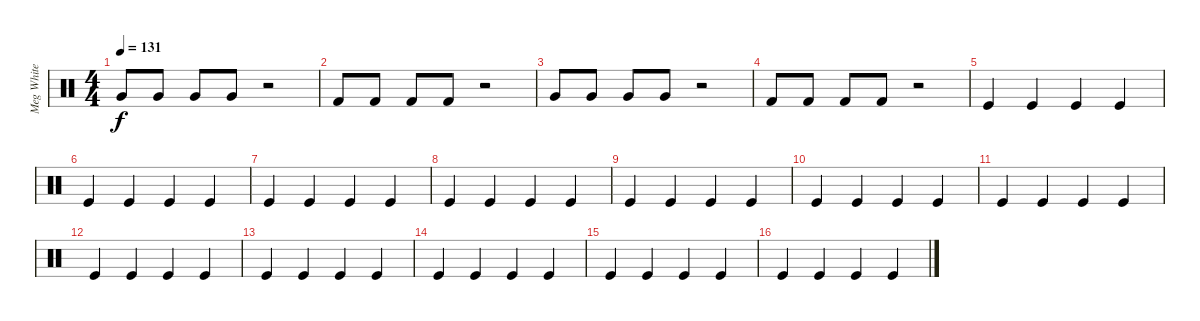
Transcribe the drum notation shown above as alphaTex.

\track ("Meg White" "Meg White") {instrument percussion}
\staff {score}
\articulation defaults
\ts (4 4)
\tempo 131
\clef neutral
\ks c "Very Low Tom (hit)".8{dy f} "Very Low Tom (hit)".8 "Very Low Tom (hit)".8 "Very Low Tom (hit)".8
r.2 |
"Kick (hit) 2".8 "Kick (hit) 2".8 "Kick (hit) 2".8 "Kick (hit) 2".8 r.2 |
"Very Low Tom (hit)".8 "Very Low Tom (hit)".8 "Very Low Tom (hit)".8 "Very Low Tom (hit)".8 r.2 |
"Kick (hit) 2".8 "Kick (hit) 2".8 "Kick (hit) 2".8 "Kick (hit) 2".8 r.2 |
"Kick (hit)".4 "Kick (hit)".4 "Kick (hit)".4 "Kick (hit)".4 |
"Kick (hit)".4 "Kick (hit)".4 "Kick (hit)".4 "Kick (hit)".4 |
"Kick (hit)".4 "Kick (hit)".4 "Kick (hit)".4 "Kick (hit)".4 |
"Kick (hit)".4 "Kick (hit)".4 "Kick (hit)".4 "Kick (hit)".4 |
"Kick (hit)".4 "Kick (hit)".4 "Kick (hit)".4 "Kick (hit)".4 |
"Kick (hit)".4 "Kick (hit)".4 "Kick (hit)".4 "Kick (hit)".4 |
"Kick (hit)".4 "Kick (hit)".4 "Kick (hit)".4 "Kick (hit)".4 |
"Kick (hit)".4 "Kick (hit)".4 "Kick (hit)".4 "Kick (hit)".4 |
"Kick (hit)".4 "Kick (hit)".4 "Kick (hit)".4 "Kick (hit)".4 |
"Kick (hit)".4 "Kick (hit)".4 "Kick (hit)".4 "Kick (hit)".4 |
"Kick (hit)".4 "Kick (hit)".4 "Kick (hit)".4 "Kick (hit)".4 |
"Kick (hit)".4 "Kick (hit)".4 "Kick (hit)".4 "Kick (hit)".4
